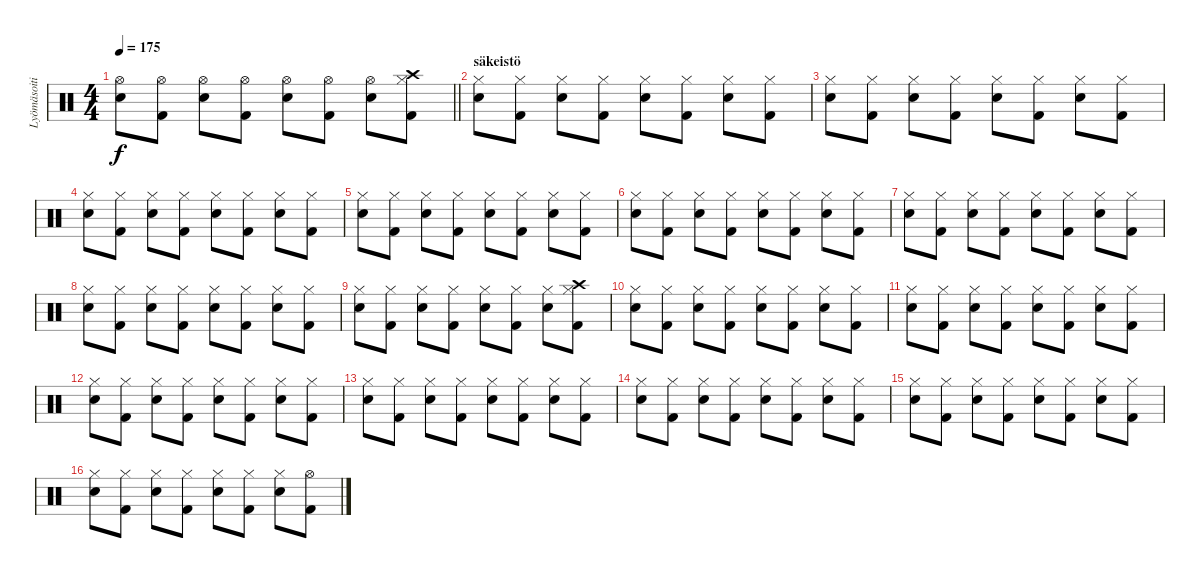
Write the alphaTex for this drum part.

\track ("Lyömäsoitin" "Lyömäsoiti") {instrument percussion}
\staff {score}
\articulation defaults
\ts (4 4)
\tempo 175
\clef neutral
\barLineRight lightlight
\ks c
("Hi-Hat (open)" "Electric Snare (hit)").8{dy f} ("Hi-Hat (open)" "Kick (hit) 2").8 ("Hi-Hat (open)" "Electric Snare (hit)").8 ("Hi-Hat (open)" "Kick (hit) 2").8 ("Hi-Hat (open)" "Electric Snare (hit)").8 ("Hi-Hat (open)" "Kick (hit) 2").8 ("Hi-Hat (open)" "Electric Snare (hit)").8 ("Crash high (hit)" "Hi-Hat (closed)" "Kick (hit) 2").8 |
\section ("" "säkeistö")
("Hi-Hat (closed)" "Electric Snare (hit)").8 ("Hi-Hat (closed)" "Kick (hit) 2").8 ("Hi-Hat (closed)" "Electric Snare (hit)").8 ("Hi-Hat (closed)" "Kick (hit) 2").8 ("Hi-Hat (closed)" "Electric Snare (hit)").8 ("Hi-Hat (closed)" "Kick (hit) 2").8 ("Hi-Hat (closed)" "Electric Snare (hit)").8 ("Hi-Hat (closed)" "Kick (hit) 2").8 |
("Hi-Hat (closed)" "Electric Snare (hit)").8 ("Hi-Hat (closed)" "Kick (hit) 2").8 ("Hi-Hat (closed)" "Electric Snare (hit)").8 ("Hi-Hat (closed)" "Kick (hit) 2").8 ("Hi-Hat (closed)" "Electric Snare (hit)").8 ("Hi-Hat (closed)" "Kick (hit) 2").8 ("Hi-Hat (closed)" "Electric Snare (hit)").8 ("Hi-Hat (closed)" "Kick (hit) 2").8 |
("Hi-Hat (closed)" "Electric Snare (hit)").8 ("Hi-Hat (closed)" "Kick (hit) 2").8 ("Hi-Hat (closed)" "Electric Snare (hit)").8 ("Hi-Hat (closed)" "Kick (hit) 2").8 ("Hi-Hat (closed)" "Electric Snare (hit)").8 ("Hi-Hat (closed)" "Kick (hit) 2").8 ("Hi-Hat (closed)" "Electric Snare (hit)").8 ("Hi-Hat (closed)" "Kick (hit) 2").8 |
("Hi-Hat (closed)" "Electric Snare (hit)").8 ("Hi-Hat (closed)" "Kick (hit) 2").8 ("Hi-Hat (closed)" "Electric Snare (hit)").8 ("Hi-Hat (closed)" "Kick (hit) 2").8 ("Hi-Hat (closed)" "Electric Snare (hit)").8 ("Hi-Hat (closed)" "Kick (hit) 2").8 ("Hi-Hat (closed)" "Electric Snare (hit)").8 ("Hi-Hat (closed)" "Kick (hit) 2").8 |
("Hi-Hat (closed)" "Electric Snare (hit)").8 ("Hi-Hat (closed)" "Kick (hit) 2").8 ("Hi-Hat (closed)" "Electric Snare (hit)").8 ("Hi-Hat (closed)" "Kick (hit) 2").8 ("Hi-Hat (closed)" "Electric Snare (hit)").8 ("Hi-Hat (closed)" "Kick (hit) 2").8 ("Hi-Hat (closed)" "Electric Snare (hit)").8 ("Hi-Hat (closed)" "Kick (hit) 2").8 |
("Hi-Hat (closed)" "Electric Snare (hit)").8 ("Hi-Hat (closed)" "Kick (hit) 2").8 ("Hi-Hat (closed)" "Electric Snare (hit)").8 ("Hi-Hat (closed)" "Kick (hit) 2").8 ("Hi-Hat (closed)" "Electric Snare (hit)").8 ("Hi-Hat (closed)" "Kick (hit) 2").8 ("Hi-Hat (closed)" "Electric Snare (hit)").8 ("Hi-Hat (closed)" "Kick (hit) 2").8 |
("Hi-Hat (closed)" "Electric Snare (hit)").8 ("Hi-Hat (closed)" "Kick (hit) 2").8 ("Hi-Hat (closed)" "Electric Snare (hit)").8 ("Hi-Hat (closed)" "Kick (hit) 2").8 ("Hi-Hat (closed)" "Electric Snare (hit)").8 ("Hi-Hat (closed)" "Kick (hit) 2").8 ("Hi-Hat (closed)" "Electric Snare (hit)").8 ("Hi-Hat (closed)" "Kick (hit) 2").8 |
("Hi-Hat (closed)" "Electric Snare (hit)").8 ("Hi-Hat (closed)" "Kick (hit) 2").8 ("Hi-Hat (closed)" "Electric Snare (hit)").8 ("Hi-Hat (closed)" "Kick (hit) 2").8 ("Hi-Hat (closed)" "Electric Snare (hit)").8 ("Hi-Hat (closed)" "Kick (hit) 2").8 ("Hi-Hat (closed)" "Electric Snare (hit)").8 ("Crash high (hit)" "Hi-Hat (closed)" "Kick (hit) 2").8 |
("Hi-Hat (closed)" "Electric Snare (hit)").8 ("Hi-Hat (closed)" "Kick (hit) 2").8 ("Hi-Hat (closed)" "Electric Snare (hit)").8 ("Hi-Hat (closed)" "Kick (hit) 2").8 ("Hi-Hat (closed)" "Electric Snare (hit)").8 ("Hi-Hat (closed)" "Kick (hit) 2").8 ("Hi-Hat (closed)" "Electric Snare (hit)").8 ("Hi-Hat (closed)" "Kick (hit) 2").8 |
("Hi-Hat (closed)" "Electric Snare (hit)").8 ("Hi-Hat (closed)" "Kick (hit) 2").8 ("Hi-Hat (closed)" "Electric Snare (hit)").8 ("Hi-Hat (closed)" "Kick (hit) 2").8 ("Hi-Hat (closed)" "Electric Snare (hit)").8 ("Hi-Hat (closed)" "Kick (hit) 2").8 ("Hi-Hat (closed)" "Electric Snare (hit)").8 ("Hi-Hat (closed)" "Kick (hit) 2").8 |
("Hi-Hat (closed)" "Electric Snare (hit)").8 ("Hi-Hat (closed)" "Kick (hit) 2").8 ("Hi-Hat (closed)" "Electric Snare (hit)").8 ("Hi-Hat (closed)" "Kick (hit) 2").8 ("Hi-Hat (closed)" "Electric Snare (hit)").8 ("Hi-Hat (closed)" "Kick (hit) 2").8 ("Hi-Hat (closed)" "Electric Snare (hit)").8 ("Hi-Hat (closed)" "Kick (hit) 2").8 |
("Hi-Hat (closed)" "Electric Snare (hit)").8 ("Hi-Hat (closed)" "Kick (hit) 2").8 ("Hi-Hat (closed)" "Electric Snare (hit)").8 ("Hi-Hat (closed)" "Kick (hit) 2").8 ("Hi-Hat (closed)" "Electric Snare (hit)").8 ("Hi-Hat (closed)" "Kick (hit) 2").8 ("Hi-Hat (closed)" "Electric Snare (hit)").8 ("Hi-Hat (closed)" "Kick (hit) 2").8 |
("Hi-Hat (closed)" "Electric Snare (hit)").8 ("Hi-Hat (closed)" "Kick (hit) 2").8 ("Hi-Hat (closed)" "Electric Snare (hit)").8 ("Hi-Hat (closed)" "Kick (hit) 2").8 ("Hi-Hat (closed)" "Electric Snare (hit)").8 ("Hi-Hat (closed)" "Kick (hit) 2").8 ("Hi-Hat (closed)" "Electric Snare (hit)").8 ("Hi-Hat (closed)" "Kick (hit) 2").8 |
("Hi-Hat (closed)" "Electric Snare (hit)").8 ("Hi-Hat (closed)" "Kick (hit) 2").8 ("Hi-Hat (closed)" "Electric Snare (hit)").8 ("Hi-Hat (closed)" "Kick (hit) 2").8 ("Hi-Hat (closed)" "Electric Snare (hit)").8 ("Hi-Hat (closed)" "Kick (hit) 2").8 ("Hi-Hat (closed)" "Electric Snare (hit)").8 ("Hi-Hat (closed)" "Kick (hit) 2").8 |
("Hi-Hat (closed)" "Electric Snare (hit)").8 ("Hi-Hat (closed)" "Kick (hit) 2").8 ("Hi-Hat (closed)" "Electric Snare (hit)").8 ("Hi-Hat (closed)" "Kick (hit) 2").8 ("Hi-Hat (closed)" "Electric Snare (hit)").8 ("Hi-Hat (closed)" "Kick (hit) 2").8 ("Hi-Hat (closed)" "Electric Snare (hit)").8 ("Hi-Hat (open)" "Kick (hit) 2").8
